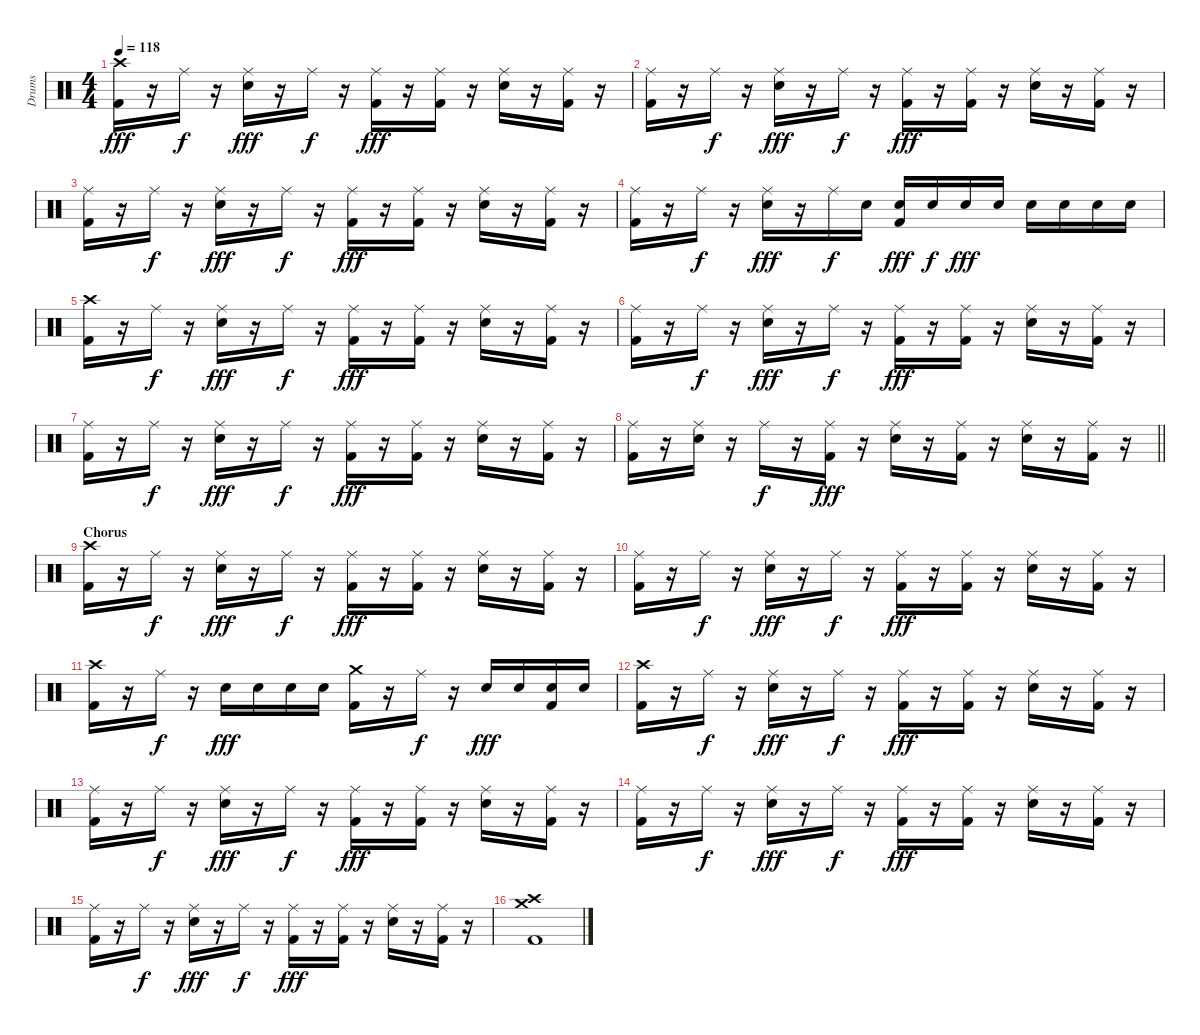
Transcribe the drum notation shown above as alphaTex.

\track ("Drums" "Drums") {instrument percussion}
\staff {score}
\articulation defaults
\ts (4 4)
\tempo 118
\clef neutral
\ks c
("Crash high (hit)" "Kick (hit) 2").16{dy fff} r.16 "Ride (middle)".16{dy f} r.16 ("Ride (middle)" "Snare (hit) 2").16{dy fff} r.16 "Ride (middle)".16{dy f} r.16 ("Ride (middle)" "Kick (hit) 2").16{dy fff} r.16 ("Ride (middle)" "Kick (hit) 2").16 r.16 ("Ride (middle)" "Snare (hit) 2").16 r.16 ("Ride (middle)" "Kick (hit) 2").16 r.16 |
("Ride (middle)" "Kick (hit) 2").16 r.16 "Ride (middle)".16{dy f} r.16 ("Ride (middle)" "Snare (hit) 2").16{dy fff} r.16 "Ride (middle)".16{dy f} r.16 ("Ride (middle)" "Kick (hit) 2").16{dy fff} r.16 ("Ride (middle)" "Kick (hit) 2").16 r.16 ("Ride (middle)" "Snare (hit) 2").16 r.16 ("Ride (middle)" "Kick (hit) 2").16 r.16 |
("Ride (middle)" "Kick (hit) 2").16 r.16 "Ride (middle)".16{dy f} r.16 ("Ride (middle)" "Snare (hit) 2").16{dy fff} r.16 "Ride (middle)".16{dy f} r.16 ("Ride (middle)" "Kick (hit) 2").16{dy fff} r.16 ("Ride (middle)" "Kick (hit) 2").16 r.16 ("Ride (middle)" "Snare (hit) 2").16 r.16 ("Ride (middle)" "Kick (hit) 2").16 r.16 |
("Ride (middle)" "Kick (hit) 2").16 r.16 "Ride (middle)".16{dy f} r.16 ("Ride (middle)" "Snare (hit) 2").16{dy fff} r.16 "Ride (middle)".16{dy f} "Snare (hit) 2".16 ("Snare (hit) 2" "Kick (hit) 2").16{dy fff} "Snare (hit) 2".16{dy f} "Snare (hit) 2".16{dy fff} "Snare (hit) 2".16 "Snare (hit) 2".16 "Snare (hit) 2".16 "Snare (hit) 2".16 "Snare (hit) 2".16 |
("Crash high (hit)" "Kick (hit) 2").16 r.16 "Ride (middle)".16{dy f} r.16 ("Ride (middle)" "Snare (hit) 2").16{dy fff} r.16 "Ride (middle)".16{dy f} r.16 ("Ride (middle)" "Kick (hit) 2").16{dy fff} r.16 ("Ride (middle)" "Kick (hit) 2").16 r.16 ("Ride (middle)" "Snare (hit) 2").16 r.16 ("Ride (middle)" "Kick (hit) 2").16 r.16 |
("Ride (middle)" "Kick (hit) 2").16 r.16 "Ride (middle)".16{dy f} r.16 ("Ride (middle)" "Snare (hit) 2").16{dy fff} r.16 "Ride (middle)".16{dy f} r.16 ("Ride (middle)" "Kick (hit) 2").16{dy fff} r.16 ("Ride (middle)" "Kick (hit) 2").16 r.16 ("Ride (middle)" "Snare (hit) 2").16 r.16 ("Ride (middle)" "Kick (hit) 2").16 r.16 |
("Ride (middle)" "Kick (hit) 2").16 r.16 "Ride (middle)".16{dy f} r.16 ("Ride (middle)" "Snare (hit) 2").16{dy fff} r.16 "Ride (middle)".16{dy f} r.16 ("Ride (middle)" "Kick (hit) 2").16{dy fff} r.16 ("Ride (middle)" "Kick (hit) 2").16 r.16 ("Ride (middle)" "Snare (hit) 2").16 r.16 ("Ride (middle)" "Kick (hit) 2").16 r.16 |
\barLineRight lightlight
("Ride (middle)" "Kick (hit) 2").16 r.16 ("Ride (middle)" "Snare (hit) 2").16 r.16 "Ride (middle)".16{dy f} r.16 ("Ride (middle)" "Kick (hit) 2").16{dy fff} r.16 ("Ride (middle)" "Snare (hit) 2").16 r.16 ("Ride (middle)" "Kick (hit) 2").16 r.16 ("Ride (middle)" "Snare (hit) 2").16 r.16 ("Ride (middle)" "Kick (hit) 2").16 r.16 |
\section ("" "Chorus")
("Crash high (hit)" "Kick (hit) 2").16 r.16 "Ride (middle)".16{dy f} r.16 ("Ride (middle)" "Snare (hit) 2").16{dy fff} r.16 "Ride (middle)".16{dy f} r.16 ("Ride (middle)" "Kick (hit) 2").16{dy fff} r.16 ("Ride (middle)" "Kick (hit) 2").16 r.16 ("Ride (middle)" "Snare (hit) 2").16 r.16 ("Ride (middle)" "Kick (hit) 2").16 r.16 |
("Ride (middle)" "Kick (hit) 2").16 r.16 "Ride (middle)".16{dy f} r.16 ("Ride (middle)" "Snare (hit) 2").16{dy fff} r.16 "Ride (middle)".16{dy f} r.16 ("Ride (middle)" "Kick (hit) 2").16{dy fff} r.16 ("Ride (middle)" "Kick (hit) 2").16 r.16 ("Ride (middle)" "Snare (hit) 2").16 r.16 ("Ride (middle)" "Kick (hit) 2").16 r.16 |
("Crash high (hit)" "Kick (hit) 2").16 r.16 "Ride (middle)".16{dy f} r.16 "Snare (hit) 2".16{dy fff} "Snare (hit) 2".16 "Snare (hit) 2".16 "Snare (hit) 2".16 ("Crash medium (hit)" "Kick (hit) 2").16 r.16 "Ride (middle)".16{dy f} r.16 "Snare (hit) 2".16{dy fff} "Snare (hit) 2".16 ("Snare (hit) 2" "Kick (hit) 2").16 "Snare (hit) 2".16 |
("Crash high (hit)" "Kick (hit) 2").16 r.16 "Ride (middle)".16{dy f} r.16 ("Ride (middle)" "Snare (hit) 2").16{dy fff} r.16 "Ride (middle)".16{dy f} r.16 ("Ride (middle)" "Kick (hit) 2").16{dy fff} r.16 ("Ride (middle)" "Kick (hit) 2").16 r.16 ("Ride (middle)" "Snare (hit) 2").16 r.16 ("Ride (middle)" "Kick (hit) 2").16 r.16 |
("Ride (middle)" "Kick (hit) 2").16 r.16 "Ride (middle)".16{dy f} r.16 ("Ride (middle)" "Snare (hit) 2").16{dy fff} r.16 "Ride (middle)".16{dy f} r.16 ("Ride (middle)" "Kick (hit) 2").16{dy fff} r.16 ("Ride (middle)" "Kick (hit) 2").16 r.16 ("Ride (middle)" "Snare (hit) 2").16 r.16 ("Ride (middle)" "Kick (hit) 2").16 r.16 |
("Ride (middle)" "Kick (hit) 2").16 r.16 "Ride (middle)".16{dy f} r.16 ("Ride (middle)" "Snare (hit) 2").16{dy fff} r.16 "Ride (middle)".16{dy f} r.16 ("Ride (middle)" "Kick (hit) 2").16{dy fff} r.16 ("Ride (middle)" "Kick (hit) 2").16 r.16 ("Ride (middle)" "Snare (hit) 2").16 r.16 ("Ride (middle)" "Kick (hit) 2").16 r.16 |
("Ride (middle)" "Kick (hit) 2").16 r.16 "Ride (middle)".16{dy f} r.16 ("Ride (middle)" "Snare (hit) 2").16{dy fff} r.16 "Ride (middle)".16{dy f} r.16 ("Ride (middle)" "Kick (hit) 2").16{dy fff} r.16 ("Ride (middle)" "Kick (hit) 2").16 r.16 ("Ride (middle)" "Snare (hit) 2").16 r.16 ("Ride (middle)" "Kick (hit) 2").16 r.16 |
("Crash high (hit)" "Crash medium (hit)" "Kick (hit) 2").1
